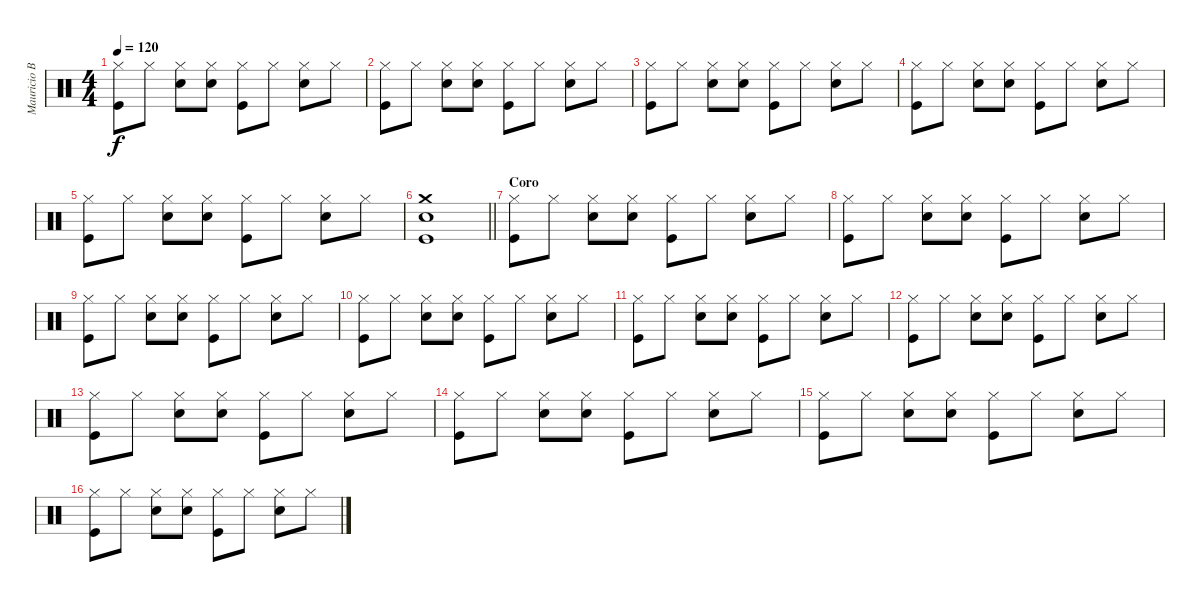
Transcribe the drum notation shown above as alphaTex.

\track ("Mauricio Basualto" "Mauricio B") {instrument percussion}
\staff {score}
\articulation defaults
\ts (4 4)
\tempo 120
\clef neutral
\ks c
("Hi-Hat (closed)" "Kick (hit)").8{dy f} "Hi-Hat (closed)".8 ("Hi-Hat (closed)" "Electric Snare (hit)").8 ("Hi-Hat (closed)" "Electric Snare (hit)").8 ("Hi-Hat (closed)" "Kick (hit)").8 "Hi-Hat (closed)".8 ("Hi-Hat (closed)" "Electric Snare (hit)").8 "Hi-Hat (closed)".8 |
("Hi-Hat (closed)" "Kick (hit)").8 "Hi-Hat (closed)".8 ("Hi-Hat (closed)" "Electric Snare (hit)").8 ("Hi-Hat (closed)" "Electric Snare (hit)").8 ("Hi-Hat (closed)" "Kick (hit)").8 "Hi-Hat (closed)".8 ("Hi-Hat (closed)" "Electric Snare (hit)").8 "Hi-Hat (closed)".8 |
("Hi-Hat (closed)" "Kick (hit)").8 "Hi-Hat (closed)".8 ("Hi-Hat (closed)" "Electric Snare (hit)").8 ("Hi-Hat (closed)" "Electric Snare (hit)").8 ("Hi-Hat (closed)" "Kick (hit)").8 "Hi-Hat (closed)".8 ("Hi-Hat (closed)" "Electric Snare (hit)").8 "Hi-Hat (closed)".8 |
("Hi-Hat (closed)" "Kick (hit)").8 "Hi-Hat (closed)".8 ("Hi-Hat (closed)" "Electric Snare (hit)").8 ("Hi-Hat (closed)" "Electric Snare (hit)").8 ("Hi-Hat (closed)" "Kick (hit)").8 "Hi-Hat (closed)".8 ("Hi-Hat (closed)" "Electric Snare (hit)").8 "Hi-Hat (closed)".8 |
("Hi-Hat (closed)" "Kick (hit)").8 "Hi-Hat (closed)".8 ("Hi-Hat (closed)" "Electric Snare (hit)").8 ("Hi-Hat (closed)" "Electric Snare (hit)").8 ("Hi-Hat (closed)" "Kick (hit)").8 "Hi-Hat (closed)".8 ("Hi-Hat (closed)" "Electric Snare (hit)").8 "Hi-Hat (closed)".8 |
\barLineRight lightlight
("Kick (hit)" "Electric Snare (hit)" "Crash medium (hit)").1 |
\section ("" "Coro")
("Hi-Hat (closed)" "Kick (hit)").8 "Hi-Hat (closed)".8 ("Hi-Hat (closed)" "Electric Snare (hit)").8 ("Hi-Hat (closed)" "Electric Snare (hit)").8 ("Hi-Hat (closed)" "Kick (hit)").8 "Hi-Hat (closed)".8 ("Hi-Hat (closed)" "Electric Snare (hit)").8 "Hi-Hat (closed)".8 |
("Hi-Hat (closed)" "Kick (hit)").8 "Hi-Hat (closed)".8 ("Hi-Hat (closed)" "Electric Snare (hit)").8 ("Hi-Hat (closed)" "Electric Snare (hit)").8 ("Hi-Hat (closed)" "Kick (hit)").8 "Hi-Hat (closed)".8 ("Hi-Hat (closed)" "Electric Snare (hit)").8 "Hi-Hat (closed)".8 |
("Hi-Hat (closed)" "Kick (hit)").8 "Hi-Hat (closed)".8 ("Hi-Hat (closed)" "Electric Snare (hit)").8 ("Hi-Hat (closed)" "Electric Snare (hit)").8 ("Hi-Hat (closed)" "Kick (hit)").8 "Hi-Hat (closed)".8 ("Hi-Hat (closed)" "Electric Snare (hit)").8 "Hi-Hat (closed)".8 |
("Hi-Hat (closed)" "Kick (hit)").8 "Hi-Hat (closed)".8 ("Hi-Hat (closed)" "Electric Snare (hit)").8 ("Hi-Hat (closed)" "Electric Snare (hit)").8 ("Hi-Hat (closed)" "Kick (hit)").8 "Hi-Hat (closed)".8 ("Hi-Hat (closed)" "Electric Snare (hit)").8 "Hi-Hat (closed)".8 |
("Hi-Hat (closed)" "Kick (hit)").8 "Hi-Hat (closed)".8 ("Hi-Hat (closed)" "Electric Snare (hit)").8 ("Hi-Hat (closed)" "Electric Snare (hit)").8 ("Hi-Hat (closed)" "Kick (hit)").8 "Hi-Hat (closed)".8 ("Hi-Hat (closed)" "Electric Snare (hit)").8 "Hi-Hat (closed)".8 |
("Hi-Hat (closed)" "Kick (hit)").8 "Hi-Hat (closed)".8 ("Hi-Hat (closed)" "Electric Snare (hit)").8 ("Hi-Hat (closed)" "Electric Snare (hit)").8 ("Hi-Hat (closed)" "Kick (hit)").8 "Hi-Hat (closed)".8 ("Hi-Hat (closed)" "Electric Snare (hit)").8 "Hi-Hat (closed)".8 |
("Hi-Hat (closed)" "Kick (hit)").8 "Hi-Hat (closed)".8 ("Hi-Hat (closed)" "Electric Snare (hit)").8 ("Hi-Hat (closed)" "Electric Snare (hit)").8 ("Hi-Hat (closed)" "Kick (hit)").8 "Hi-Hat (closed)".8 ("Hi-Hat (closed)" "Electric Snare (hit)").8 "Hi-Hat (closed)".8 |
("Hi-Hat (closed)" "Kick (hit)").8 "Hi-Hat (closed)".8 ("Hi-Hat (closed)" "Electric Snare (hit)").8 ("Hi-Hat (closed)" "Electric Snare (hit)").8 ("Hi-Hat (closed)" "Kick (hit)").8 "Hi-Hat (closed)".8 ("Hi-Hat (closed)" "Electric Snare (hit)").8 "Hi-Hat (closed)".8 |
("Hi-Hat (closed)" "Kick (hit)").8 "Hi-Hat (closed)".8 ("Hi-Hat (closed)" "Electric Snare (hit)").8 ("Hi-Hat (closed)" "Electric Snare (hit)").8 ("Hi-Hat (closed)" "Kick (hit)").8 "Hi-Hat (closed)".8 ("Hi-Hat (closed)" "Electric Snare (hit)").8 "Hi-Hat (closed)".8 |
("Hi-Hat (closed)" "Kick (hit)").8 "Hi-Hat (closed)".8 ("Hi-Hat (closed)" "Electric Snare (hit)").8 ("Hi-Hat (closed)" "Electric Snare (hit)").8 ("Hi-Hat (closed)" "Kick (hit)").8 "Hi-Hat (closed)".8 ("Hi-Hat (closed)" "Electric Snare (hit)").8 "Hi-Hat (closed)".8
